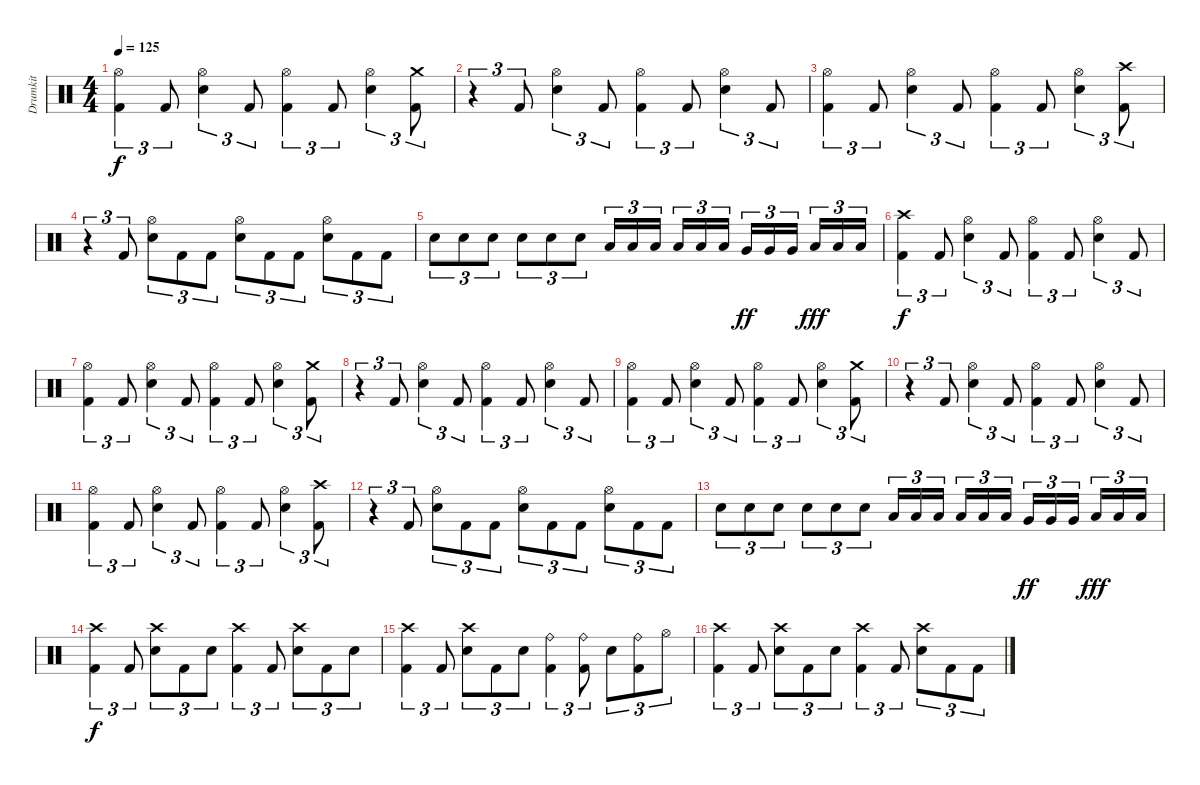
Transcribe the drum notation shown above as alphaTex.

\track ("Drumkit" "Drumkit") {instrument percussion}
\staff {score}
\articulation defaults
\ts (4 4)
\tempo 125
\clef neutral
\ks c
("Hi-Hat (open)" "Kick (hit) 2").4{tu (3 2) dy f} "Kick (hit) 2".8{tu (3 2)} ("Hi-Hat (open)" "Electric Snare (hit)").4{tu (3 2)} "Kick (hit) 2".8{tu (3 2)} ("Hi-Hat (open)" "Kick (hit) 2").4{tu (3 2)} "Kick (hit) 2".8{tu (3 2)} ("Hi-Hat (open)" "Electric Snare (hit)").4{tu (3 2)} ("Crash medium (hit)" "Kick (hit) 2").8{tu (3 2)} |
r.4{tu (3 2)} "Kick (hit) 2".8{tu (3 2)} ("Hi-Hat (open)" "Electric Snare (hit)").4{tu (3 2)} "Kick (hit) 2".8{tu (3 2)} ("Hi-Hat (open)" "Kick (hit) 2").4{tu (3 2)} "Kick (hit) 2".8{tu (3 2)} ("Hi-Hat (open)" "Electric Snare (hit)").4{tu (3 2)} "Kick (hit) 2".8{tu (3 2)} |
("Hi-Hat (open)" "Kick (hit) 2").4{tu (3 2)} "Kick (hit) 2".8{tu (3 2)} ("Hi-Hat (open)" "Electric Snare (hit)").4{tu (3 2)} "Kick (hit) 2".8{tu (3 2)} ("Hi-Hat (open)" "Kick (hit) 2").4{tu (3 2)} "Kick (hit) 2".8{tu (3 2)} ("Hi-Hat (open)" "Electric Snare (hit)").4{tu (3 2)} ("Crash high (hit)" "Kick (hit) 2").8{tu (3 2)} |
r.4{tu (3 2)} "Kick (hit) 2".8{tu (3 2)} ("Hi-Hat (open)" "Electric Snare (hit)").8{tu (3 2)} "Kick (hit) 2".8{tu (3 2)} "Kick (hit) 2".8{tu (3 2)} ("Hi-Hat (open)" "Electric Snare (hit)").8{tu (3 2)} "Kick (hit) 2".8{tu (3 2)} "Kick (hit) 2".8{tu (3 2)} ("Hi-Hat (open)" "Electric Snare (hit)").8{tu (3 2)} "Kick (hit) 2".8{tu (3 2)} "Kick (hit) 2".8{tu (3 2)} |
"Electric Snare (hit)".8{tu (3 2)} "Electric Snare (hit)".8{tu (3 2)} "Electric Snare (hit)".8{tu (3 2)} "Electric Snare (hit)".8{tu (3 2)} "Electric Snare (hit)".8{tu (3 2)} "Electric Snare (hit)".8{tu (3 2)} "Low Tom (hit)".16{tu (3 2)} "Low Tom (hit)".16{tu (3 2)} "Low Tom (hit)".16{tu (3 2) beam splitsecondary} "Low Tom (hit)".16{tu (3 2)} "Low Tom (hit)".16{tu (3 2)} "Low Tom (hit)".16{tu (3 2)} "Very Low Tom (hit)".16{tu (3 2) dy ff} "Very Low Tom (hit)".16{tu (3 2)} "Very Low Tom (hit)".16{tu (3 2) beam splitsecondary} "Low Floor Tom (hit)".16{tu (3 2) dy fff} "Low Floor Tom (hit)".16{tu (3 2)} "Low Floor Tom (hit)".16{tu (3 2)} |
("Crash high (hit)" "Kick (hit) 2").4{tu (3 2) dy f} "Kick (hit) 2".8{tu (3 2)} ("Hi-Hat (open)" "Electric Snare (hit)").4{tu (3 2)} "Kick (hit) 2".8{tu (3 2)} ("Hi-Hat (open)" "Kick (hit) 2").4{tu (3 2)} "Kick (hit) 2".8{tu (3 2)} ("Hi-Hat (open)" "Electric Snare (hit)").4{tu (3 2)} "Kick (hit) 2".8{tu (3 2)} |
("Hi-Hat (open)" "Kick (hit) 2").4{tu (3 2)} "Kick (hit) 2".8{tu (3 2)} ("Hi-Hat (open)" "Electric Snare (hit)").4{tu (3 2)} "Kick (hit) 2".8{tu (3 2)} ("Hi-Hat (open)" "Kick (hit) 2").4{tu (3 2)} "Kick (hit) 2".8{tu (3 2)} ("Hi-Hat (open)" "Electric Snare (hit)").4{tu (3 2)} ("Crash medium (hit)" "Kick (hit) 2").8{tu (3 2)} |
r.4{tu (3 2)} "Kick (hit) 2".8{tu (3 2)} ("Hi-Hat (open)" "Electric Snare (hit)").4{tu (3 2)} "Kick (hit) 2".8{tu (3 2)} ("Hi-Hat (open)" "Kick (hit) 2").4{tu (3 2)} "Kick (hit) 2".8{tu (3 2)} ("Hi-Hat (open)" "Electric Snare (hit)").4{tu (3 2)} "Kick (hit) 2".8{tu (3 2)} |
("Hi-Hat (open)" "Kick (hit) 2").4{tu (3 2)} "Kick (hit) 2".8{tu (3 2)} ("Hi-Hat (open)" "Electric Snare (hit)").4{tu (3 2)} "Kick (hit) 2".8{tu (3 2)} ("Hi-Hat (open)" "Kick (hit) 2").4{tu (3 2)} "Kick (hit) 2".8{tu (3 2)} ("Hi-Hat (open)" "Electric Snare (hit)").4{tu (3 2)} ("Crash medium (hit)" "Kick (hit) 2").8{tu (3 2)} |
r.4{tu (3 2)} "Kick (hit) 2".8{tu (3 2)} ("Hi-Hat (open)" "Electric Snare (hit)").4{tu (3 2)} "Kick (hit) 2".8{tu (3 2)} ("Hi-Hat (open)" "Kick (hit) 2").4{tu (3 2)} "Kick (hit) 2".8{tu (3 2)} ("Hi-Hat (open)" "Electric Snare (hit)").4{tu (3 2)} "Kick (hit) 2".8{tu (3 2)} |
("Hi-Hat (open)" "Kick (hit) 2").4{tu (3 2)} "Kick (hit) 2".8{tu (3 2)} ("Hi-Hat (open)" "Electric Snare (hit)").4{tu (3 2)} "Kick (hit) 2".8{tu (3 2)} ("Hi-Hat (open)" "Kick (hit) 2").4{tu (3 2)} "Kick (hit) 2".8{tu (3 2)} ("Hi-Hat (open)" "Electric Snare (hit)").4{tu (3 2)} ("Crash high (hit)" "Kick (hit) 2").8{tu (3 2)} |
r.4{tu (3 2)} "Kick (hit) 2".8{tu (3 2)} ("Hi-Hat (open)" "Electric Snare (hit)").8{tu (3 2)} "Kick (hit) 2".8{tu (3 2)} "Kick (hit) 2".8{tu (3 2)} ("Hi-Hat (open)" "Electric Snare (hit)").8{tu (3 2)} "Kick (hit) 2".8{tu (3 2)} "Kick (hit) 2".8{tu (3 2)} ("Hi-Hat (open)" "Electric Snare (hit)").8{tu (3 2)} "Kick (hit) 2".8{tu (3 2)} "Kick (hit) 2".8{tu (3 2)} |
"Electric Snare (hit)".8{tu (3 2)} "Electric Snare (hit)".8{tu (3 2)} "Electric Snare (hit)".8{tu (3 2)} "Electric Snare (hit)".8{tu (3 2)} "Electric Snare (hit)".8{tu (3 2)} "Electric Snare (hit)".8{tu (3 2)} "Low Tom (hit)".16{tu (3 2)} "Low Tom (hit)".16{tu (3 2)} "Low Tom (hit)".16{tu (3 2) beam splitsecondary} "Low Tom (hit)".16{tu (3 2)} "Low Tom (hit)".16{tu (3 2)} "Low Tom (hit)".16{tu (3 2)} "Very Low Tom (hit)".16{tu (3 2) dy ff} "Very Low Tom (hit)".16{tu (3 2)} "Very Low Tom (hit)".16{tu (3 2) beam splitsecondary} "Low Floor Tom (hit)".16{tu (3 2) dy fff} "Low Floor Tom (hit)".16{tu (3 2)} "Low Floor Tom (hit)".16{tu (3 2)} |
("Crash high (hit)" "Kick (hit) 2").4{tu (3 2) dy f} "Kick (hit) 2".8{tu (3 2)} ("Crash high (hit)" "Electric Snare (hit)").8{tu (3 2)} "Kick (hit) 2".8{tu (3 2)} "Electric Snare (hit)".8{tu (3 2)} ("Crash high (hit)" "Kick (hit) 2").4{tu (3 2)} "Kick (hit) 2".8{tu (3 2)} ("Crash high (hit)" "Electric Snare (hit)").8{tu (3 2)} "Kick (hit) 2".8{tu (3 2)} "Electric Snare (hit)".8{tu (3 2)} |
("Crash high (hit)" "Kick (hit) 2").4{tu (3 2)} "Kick (hit) 2".8{tu (3 2)} ("Crash high (hit)" "Electric Snare (hit)").8{tu (3 2)} "Kick (hit) 2".8{tu (3 2)} "Electric Snare (hit)".8{tu (3 2)} ("Ride (bell)" "Kick (hit) 2").4{tu (3 2)} ("Ride (bell)" "Kick (hit) 2").8{tu (3 2)} "Electric Snare (hit)".8{tu (3 2)} ("Ride (bell)" "Kick (hit) 2").8{tu (3 2)} "Hi-Hat (open)".8{tu (3 2)} |
("Crash high (hit)" "Kick (hit) 2").4{tu (3 2)} "Kick (hit) 2".8{tu (3 2)} ("Crash high (hit)" "Electric Snare (hit)").8{tu (3 2)} "Kick (hit) 2".8{tu (3 2)} "Electric Snare (hit)".8{tu (3 2)} ("Crash high (hit)" "Kick (hit) 2").4{tu (3 2)} "Kick (hit) 2".8{tu (3 2)} ("Crash high (hit)" "Electric Snare (hit)").8{tu (3 2)} "Kick (hit) 2".8{tu (3 2)} "Kick (hit) 2".8{tu (3 2)}
